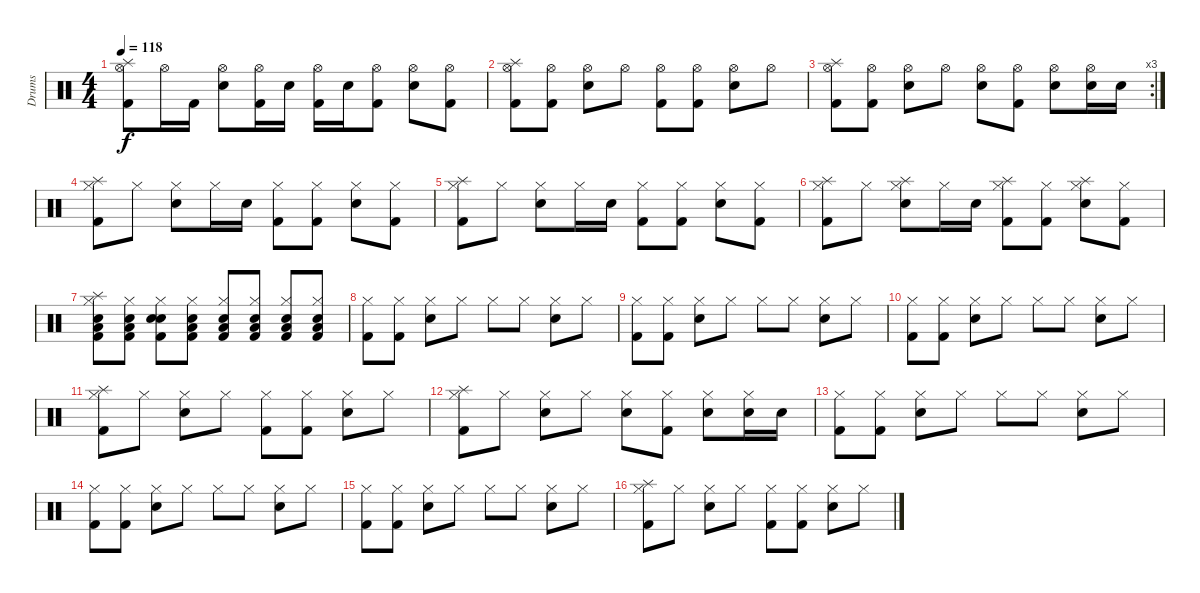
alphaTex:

\track ("Drums" "Drums") {instrument percussion}
\staff {score}
\articulation defaults
\ts (4 4)
\tempo 118
\clef neutral
\ks c
("Splash (hit)" "Hi-Hat (open)" "Kick (hit) 2").8{dy f} "Hi-Hat (open)".16 "Kick (hit) 2".16 ("Hi-Hat (open)" "Snare (hit) 2").8 ("Hi-Hat (open)" "Kick (hit) 2").16 "Snare (hit) 2".16 ("Hi-Hat (open)" "Kick (hit) 2").16 "Snare (hit) 2".16 ("Hi-Hat (open)" "Kick (hit) 2").8 ("Hi-Hat (open)" "Snare (hit) 2").8 ("Hi-Hat (open)" "Kick (hit) 2").8 |
("Splash (hit)" "Hi-Hat (open)" "Kick (hit) 2").8 ("Hi-Hat (open)" "Kick (hit) 2").8 ("Hi-Hat (open)" "Snare (hit) 2").8 "Hi-Hat (open)".8 ("Hi-Hat (open)" "Kick (hit) 2").8 ("Hi-Hat (open)" "Kick (hit) 2").8 ("Hi-Hat (open)" "Snare (hit) 2").8 "Hi-Hat (open)".8 |
\rc 3
("Splash (hit)" "Hi-Hat (open)" "Kick (hit) 2").8 ("Hi-Hat (open)" "Kick (hit) 2").8 ("Hi-Hat (open)" "Snare (hit) 2").8 "Hi-Hat (open)".8 ("Hi-Hat (open)" "Snare (hit) 2").8 ("Hi-Hat (open)" "Kick (hit) 2").8 ("Hi-Hat (open)" "Snare (hit) 2").8 ("Hi-Hat (open)" "Snare (hit) 2").16 "Snare (hit) 2".16 |
("Splash (hit)" "Hi-Hat (closed)" "Kick (hit) 2").8 "Hi-Hat (closed)".8 ("Hi-Hat (closed)" "Snare (hit) 2").8 "Hi-Hat (closed)".16 "Snare (hit) 2".16 ("Hi-Hat (closed)" "Kick (hit) 2").8 ("Hi-Hat (closed)" "Kick (hit) 2").8 ("Hi-Hat (closed)" "Snare (hit) 2").8 ("Hi-Hat (closed)" "Kick (hit) 2").8 |
("Splash (hit)" "Hi-Hat (closed)" "Kick (hit) 2").8 "Hi-Hat (closed)".8 ("Hi-Hat (closed)" "Snare (hit) 2").8 "Hi-Hat (closed)".16 "Snare (hit) 2".16 ("Hi-Hat (closed)" "Kick (hit) 2").8 ("Hi-Hat (closed)" "Kick (hit) 2").8 ("Hi-Hat (closed)" "Snare (hit) 2").8 ("Hi-Hat (closed)" "Kick (hit) 2").8 |
("Splash (hit)" "Hi-Hat (closed)" "Kick (hit) 2").8 "Hi-Hat (closed)".8 ("Splash (hit)" "Hi-Hat (closed)" "Snare (hit) 2").8 "Hi-Hat (closed)".16 "Snare (hit) 2".16 ("Splash (hit)" "Hi-Hat (closed)" "Kick (hit) 2").8 ("Hi-Hat (closed)" "Kick (hit) 2").8 ("Splash (hit)" "Hi-Hat (closed)" "Snare (hit) 2").8 ("Hi-Hat (closed)" "Kick (hit) 2").8 |
("Snare (hit) 2" "Splash (hit)" "Hi-Hat (closed)" "Low Floor Tom (hit)" "Kick (hit) 2").8 ("Snare (hit) 2" "Hi-Hat (closed)" "Low Floor Tom (hit)" "Kick (hit) 2").8 ("Snare (hit) 2" "Hi-Hat (closed)" "Snare (hit)" "Kick (hit) 2").8 ("Snare (hit) 2" "Hi-Hat (closed)" "Low Floor Tom (hit)" "Kick (hit) 2").8 ("Snare (hit) 2" "Hi-Hat (closed)" "Low Floor Tom (hit)" "Kick (hit) 2").8 ("Snare (hit) 2" "Hi-Hat (closed)" "Low Floor Tom (hit)" "Kick (hit) 2").8 ("Snare (hit) 2" "Hi-Hat (closed)" "Low Floor Tom (hit)" "Kick (hit) 2").8 ("Snare (hit) 2" "Hi-Hat (closed)" "Low Floor Tom (hit)" "Kick (hit) 2").8 |
("Hi-Hat (closed)" "Kick (hit) 2").8 ("Hi-Hat (closed)" "Kick (hit) 2").8 ("Hi-Hat (closed)" "Snare (hit) 2").8 "Hi-Hat (closed)".8 "Hi-Hat (closed)".8 "Hi-Hat (closed)".8 ("Hi-Hat (closed)" "Snare (hit) 2").8 "Hi-Hat (closed)".8 |
("Hi-Hat (closed)" "Kick (hit) 2").8 ("Hi-Hat (closed)" "Kick (hit) 2").8 ("Hi-Hat (closed)" "Snare (hit) 2").8 "Hi-Hat (closed)".8 "Hi-Hat (closed)".8 "Hi-Hat (closed)".8 ("Hi-Hat (closed)" "Snare (hit) 2").8 "Hi-Hat (closed)".8 |
("Hi-Hat (closed)" "Kick (hit) 2").8 ("Hi-Hat (closed)" "Kick (hit) 2").8 ("Hi-Hat (closed)" "Snare (hit) 2").8 "Hi-Hat (closed)".8 "Hi-Hat (closed)".8 "Hi-Hat (closed)".8 ("Hi-Hat (closed)" "Snare (hit) 2").8 "Hi-Hat (closed)".8 |
("Splash (hit)" "Hi-Hat (closed)" "Kick (hit) 2").8 "Hi-Hat (closed)".8 ("Hi-Hat (closed)" "Snare (hit) 2").8 "Hi-Hat (closed)".8 ("Hi-Hat (closed)" "Kick (hit) 2").8 ("Hi-Hat (closed)" "Kick (hit) 2").8 ("Hi-Hat (closed)" "Snare (hit) 2").8 "Hi-Hat (closed)".8 |
("Splash (hit)" "Hi-Hat (closed)" "Kick (hit) 2").8 "Hi-Hat (closed)".8 ("Hi-Hat (closed)" "Snare (hit) 2").8 "Hi-Hat (closed)".8 ("Hi-Hat (closed)" "Snare (hit) 2").8 ("Hi-Hat (closed)" "Kick (hit) 2").8 ("Hi-Hat (closed)" "Snare (hit) 2").8 ("Hi-Hat (closed)" "Snare (hit) 2").16 "Snare (hit) 2".16 |
("Hi-Hat (closed)" "Kick (hit) 2").8 ("Hi-Hat (closed)" "Kick (hit) 2").8 ("Hi-Hat (closed)" "Snare (hit) 2").8 "Hi-Hat (closed)".8 "Hi-Hat (closed)".8 "Hi-Hat (closed)".8 ("Hi-Hat (closed)" "Snare (hit) 2").8 "Hi-Hat (closed)".8 |
("Hi-Hat (closed)" "Kick (hit) 2").8 ("Hi-Hat (closed)" "Kick (hit) 2").8 ("Hi-Hat (closed)" "Snare (hit) 2").8 "Hi-Hat (closed)".8 "Hi-Hat (closed)".8 "Hi-Hat (closed)".8 ("Hi-Hat (closed)" "Snare (hit) 2").8 "Hi-Hat (closed)".8 |
("Hi-Hat (closed)" "Kick (hit) 2").8 ("Hi-Hat (closed)" "Kick (hit) 2").8 ("Hi-Hat (closed)" "Snare (hit) 2").8 "Hi-Hat (closed)".8 "Hi-Hat (closed)".8 "Hi-Hat (closed)".8 ("Hi-Hat (closed)" "Snare (hit) 2").8 "Hi-Hat (closed)".8 |
("Splash (hit)" "Hi-Hat (closed)" "Kick (hit) 2").8 "Hi-Hat (closed)".8 ("Hi-Hat (closed)" "Snare (hit) 2").8 "Hi-Hat (closed)".8 ("Hi-Hat (closed)" "Kick (hit) 2").8 ("Hi-Hat (closed)" "Kick (hit) 2").8 ("Hi-Hat (closed)" "Snare (hit) 2").8 "Hi-Hat (closed)".8
